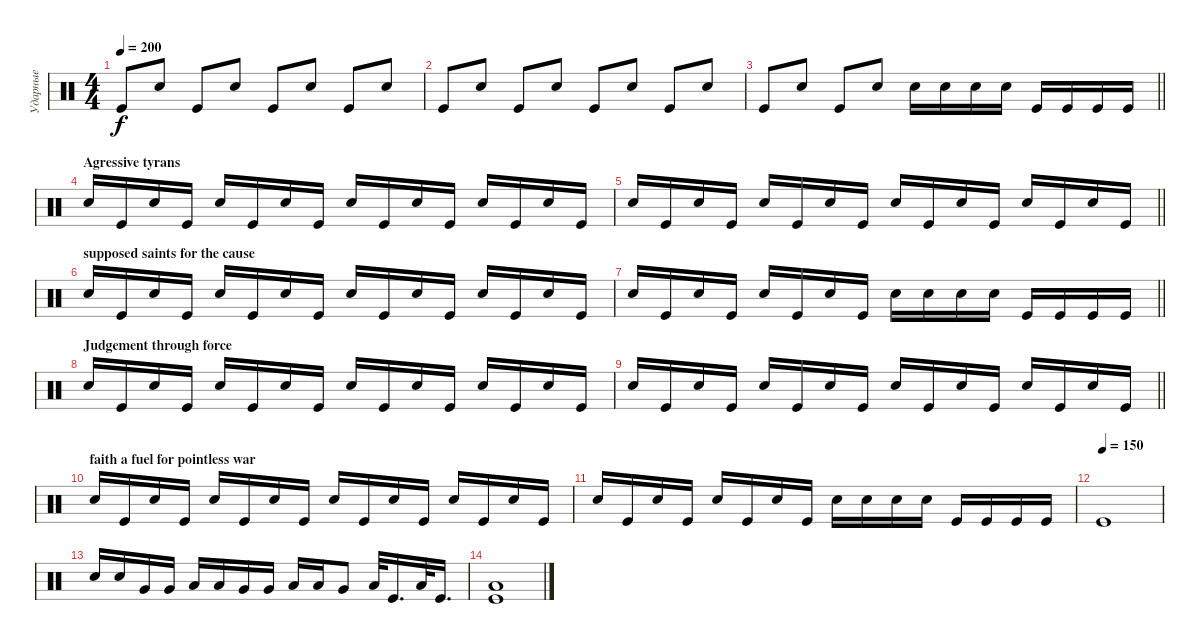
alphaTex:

\track ("Ударные" "Ударные") {instrument percussion}
\staff {score}
\articulation defaults
\ts (4 4)
\tempo 200
\clef neutral
\ks c "Kick (hit)".8{dy f} "Snare (hit) 2".8 "Kick (hit)".8 "Snare (hit) 2".8 "Kick (hit)".8 "Snare (hit) 2".8 "Kick (hit)".8 "Snare (hit) 2".8
|
"Kick (hit)".8 "Snare (hit) 2".8 "Kick (hit)".8 "Snare (hit) 2".8 "Kick (hit)".8 "Snare (hit) 2".8 "Kick (hit)".8 "Snare (hit) 2".8 |
\barLineRight lightlight "Kick (hit)".8 "Snare (hit) 2".8 "Kick (hit)".8 "Snare (hit) 2".8 "Snare (hit) 2".16 "Snare (hit) 2".16 "Snare (hit) 2".16 "Snare (hit) 2".16 "Kick (hit)".16 "Kick (hit)".16 "Kick (hit)".16 "Kick (hit)".16
|
\section ("" "Agressive tyrans")
"Snare (hit) 2".16 "Kick (hit)".16 "Snare (hit) 2".16 "Kick (hit)".16 "Snare (hit) 2".16 "Kick (hit)".16 "Snare (hit) 2".16 "Kick (hit)".16 "Snare (hit) 2".16 "Kick (hit)".16 "Snare (hit) 2".16 "Kick (hit)".16 "Snare (hit) 2".16 "Kick (hit)".16 "Snare (hit) 2".16 "Kick (hit)".16 |
\barLineRight lightlight "Snare (hit) 2".16 "Kick (hit)".16 "Snare (hit) 2".16 "Kick (hit)".16 "Snare (hit) 2".16 "Kick (hit)".16 "Snare (hit) 2".16 "Kick (hit)".16 "Snare (hit) 2".16 "Kick (hit)".16 "Snare (hit) 2".16 "Kick (hit)".16 "Snare (hit) 2".16 "Kick (hit)".16 "Snare (hit) 2".16 "Kick (hit)".16
|
\section ("" "supposed saints for the cause")
"Snare (hit) 2".16 "Kick (hit)".16 "Snare (hit) 2".16 "Kick (hit)".16 "Snare (hit) 2".16 "Kick (hit)".16 "Snare (hit) 2".16 "Kick (hit)".16 "Snare (hit) 2".16 "Kick (hit)".16 "Snare (hit) 2".16 "Kick (hit)".16 "Snare (hit) 2".16 "Kick (hit)".16 "Snare (hit) 2".16 "Kick (hit)".16 |
\barLineRight lightlight "Snare (hit) 2".16 "Kick (hit)".16 "Snare (hit) 2".16 "Kick (hit)".16 "Snare (hit) 2".16 "Kick (hit)".16 "Snare (hit) 2".16 "Kick (hit)".16 "Snare (hit) 2".16 "Snare (hit) 2".16 "Snare (hit) 2".16 "Snare (hit) 2".16 "Kick (hit)".16 "Kick (hit)".16 "Kick (hit)".16 "Kick (hit)".16
|
\section ("" "Judgement through force")
"Snare (hit) 2".16 "Kick (hit)".16 "Snare (hit) 2".16 "Kick (hit)".16 "Snare (hit) 2".16 "Kick (hit)".16 "Snare (hit) 2".16 "Kick (hit)".16 "Snare (hit) 2".16 "Kick (hit)".16 "Snare (hit) 2".16 "Kick (hit)".16 "Snare (hit) 2".16 "Kick (hit)".16 "Snare (hit) 2".16 "Kick (hit)".16 |
\barLineRight lightlight "Snare (hit) 2".16 "Kick (hit)".16 "Snare (hit) 2".16 "Kick (hit)".16 "Snare (hit) 2".16 "Kick (hit)".16 "Snare (hit) 2".16 "Kick (hit)".16 "Snare (hit) 2".16 "Kick (hit)".16 "Snare (hit) 2".16 "Kick (hit)".16 "Snare (hit) 2".16 "Kick (hit)".16 "Snare (hit) 2".16 "Kick (hit)".16
|
\section ("" "faith a fuel for pointless war")
"Snare (hit) 2".16 "Kick (hit)".16 "Snare (hit) 2".16 "Kick (hit)".16 "Snare (hit) 2".16 "Kick (hit)".16 "Snare (hit) 2".16 "Kick (hit)".16 "Snare (hit) 2".16 "Kick (hit)".16 "Snare (hit) 2".16 "Kick (hit)".16 "Snare (hit) 2".16 "Kick (hit)".16 "Snare (hit) 2".16 "Kick (hit)".16 |
"Snare (hit) 2".16 "Kick (hit)".16 "Snare (hit) 2".16 "Kick (hit)".16 "Snare (hit) 2".16 "Kick (hit)".16 "Snare (hit) 2".16 "Kick (hit)".16 "Snare (hit) 2".16 "Snare (hit) 2".16 "Snare (hit) 2".16 "Snare (hit) 2".16 "Kick (hit)".16 "Kick (hit)".16 "Kick (hit)".16 "Kick (hit)".16 |
\tempo (150)
"Kick (hit)".1 |
"Snare (hit) 2".16 "Snare (hit) 2".16 "Very Low Tom (hit)".16 "Very Low Tom (hit)".16 "Low Floor Tom (hit)".16 "Low Floor Tom (hit)".16 "Very Low Tom (hit)".16 "Very Low Tom (hit)".16 "Low Floor Tom (hit)".16 "Low Floor Tom (hit)".16 "Very Low Tom (hit)".8 "Low Floor Tom (hit)".32 "Kick (hit)".16{d} "Low Floor Tom (hit)".32 "Kick (hit)".16{d} |
("Kick (hit)" "Low Floor Tom (hit)").1
